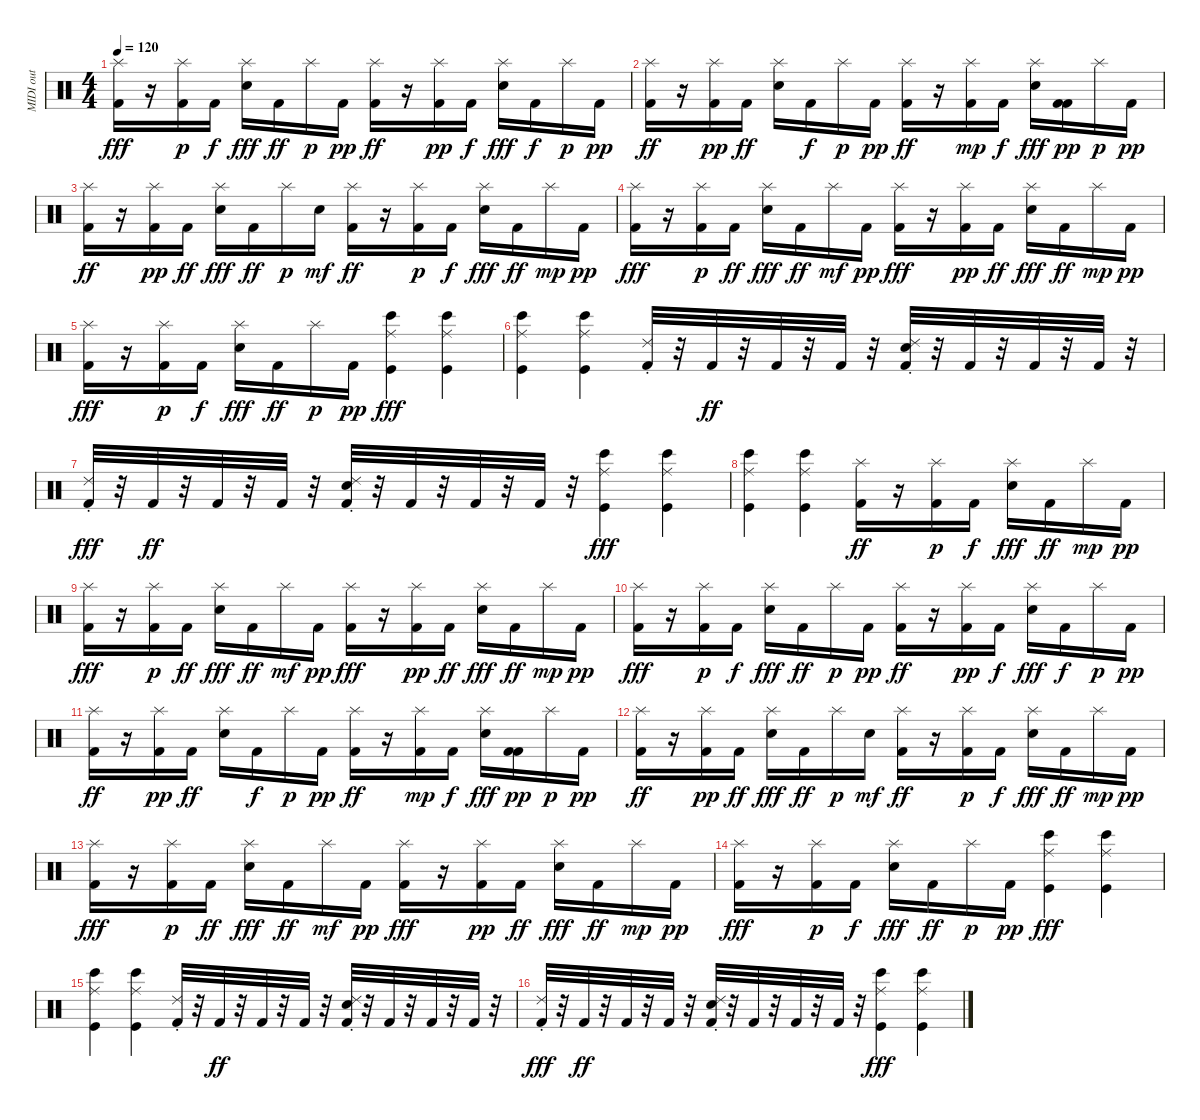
\track ("MIDI out" "MIDI out") {instrument percussion}
\staff {score}
\articulation defaults
\ts (4 4)
\tempo 120
\clef neutral
\ks c
("Kick (hit) 2" "Splash (hit)").16{dy fff} r.16 ("Splash (hit)" "Kick (hit) 2").16{dy p} "Kick (hit) 2".16{dy f} ("Splash (hit)" "Snare (hit) 2").16{dy fff} "Kick (hit) 2".16{dy ff} "Splash (hit)".16{dy p} "Kick (hit) 2".16{dy pp} ("Splash (hit)" "Kick (hit) 2").16{dy ff} r.16 ("Splash (hit)" "Kick (hit) 2").16{dy pp} "Kick (hit) 2".16{dy f} ("Splash (hit)" "Snare (hit) 2").16{dy fff} "Kick (hit) 2".16{dy f} "Splash (hit)".16{dy p} "Kick (hit) 2".16{dy pp} |
("Splash (hit)" "Kick (hit) 2").16{dy ff} r.16 ("Splash (hit)" "Kick (hit) 2").16{dy pp} "Kick (hit) 2".16{dy ff} ("Snare (hit) 2" "Splash (hit)").16 "Kick (hit) 2".16{dy f} "Splash (hit)".16{dy p} "Kick (hit) 2".16{dy pp} ("Splash (hit)" "Kick (hit) 2").16{dy ff} r.16 ("Kick (hit) 2" "Splash (hit)").16{dy mp} "Kick (hit) 2".16{dy f} ("Snare (hit) 2" "Splash (hit)").16{dy fff} ("Kick (hit) 2" "Kick (hit) 2").16{dy pp} "Splash (hit)".16{dy p} "Kick (hit) 2".16{dy pp} |
("Kick (hit) 2" "Splash (hit)").16{dy ff} r.16 ("Splash (hit)" "Kick (hit) 2").16{dy pp} "Kick (hit) 2".16{dy ff} ("Splash (hit)" "Snare (hit) 2").16{dy fff} "Kick (hit) 2".16{dy ff} "Splash (hit)".16{dy p} "Snare (hit) 2".16{dy mf} ("Splash (hit)" "Kick (hit) 2").16{dy ff} r.16 ("Kick (hit) 2" "Splash (hit)").16{dy p} "Kick (hit) 2".16{dy f} ("Splash (hit)" "Snare (hit) 2").16{dy fff} "Kick (hit) 2".16{dy ff} "Splash (hit)".16{dy mp} "Kick (hit) 2".16{dy pp} |
("Kick (hit) 2" "Splash (hit)").16{dy fff} r.16 ("Splash (hit)" "Kick (hit) 2").16{dy p} "Kick (hit) 2".16{dy ff} ("Splash (hit)" "Snare (hit) 2").16{dy fff} "Kick (hit) 2".16{dy ff} "Splash (hit)".16{dy mf} "Kick (hit) 2".16{dy pp} ("Kick (hit) 2" "Splash (hit)").16{dy fff} r.16 ("Splash (hit)" "Kick (hit) 2").16{dy pp} "Kick (hit) 2".16{dy ff} ("Snare (hit) 2" "Splash (hit)").16{dy fff} "Kick (hit) 2".16{dy ff} "Splash (hit)".16{dy mp} "Kick (hit) 2".16{dy pp} |
("Kick (hit) 2" "Splash (hit)").16{dy fff} r.16 ("Splash (hit)" "Kick (hit) 2").16{dy p} "Kick (hit) 2".16{dy f} ("Splash (hit)" "Snare (hit) 2").16{dy fff} "Kick (hit) 2".16{dy ff} "Splash (hit)".16{dy p} "Kick (hit) 2".16{dy pp} ("Ride (middle)" "Bongo High (hit)" "Kick (hit)").4{dy fff} ("Kick (hit)" "Ride (middle)" "Bongo High (hit)").4 |
("Bongo High (hit)" "Ride (middle)" "Kick (hit)").4 ("Kick (hit)" "Ride (middle)" "Bongo High (hit)").4 ("Ride (choke) 2" "Kick (hit) 2").32 r.32 "Kick (hit) 2".32{dy ff} r.32 "Kick (hit) 2".32 r.32 "Kick (hit) 2".32 r.32 ("Ride (choke) 2" "Snare (hit) 2" "Kick (hit) 2").32 r.32 "Kick (hit) 2".32 r.32 "Kick (hit) 2".32 r.32 "Kick (hit) 2".32 r.32 |
("Ride (choke) 2" "Kick (hit) 2").32{dy fff} r.32 "Kick (hit) 2".32{dy ff} r.32 "Kick (hit) 2".32 r.32 "Kick (hit) 2".32 r.32 ("Ride (choke) 2" "Snare (hit) 2" "Kick (hit) 2").32 r.32 "Kick (hit) 2".32 r.32 "Kick (hit) 2".32 r.32 "Kick (hit) 2".32 r.32 ("Ride (middle)" "Bongo High (hit)" "Kick (hit)").4{dy fff} ("Kick (hit)" "Ride (middle)" "Bongo High (hit)").4 |
("Bongo High (hit)" "Ride (middle)" "Kick (hit)").4 ("Kick (hit)" "Ride (middle)" "Bongo High (hit)").4 ("Splash (hit)" "Kick (hit) 2").16{dy ff} r.16 ("Kick (hit) 2" "Splash (hit)").16{dy p} "Kick (hit) 2".16{dy f} ("Splash (hit)" "Snare (hit) 2").16{dy fff} "Kick (hit) 2".16{dy ff} "Splash (hit)".16{dy mp} "Kick (hit) 2".16{dy pp} |
("Kick (hit) 2" "Splash (hit)").16{dy fff} r.16 ("Splash (hit)" "Kick (hit) 2").16{dy p} "Kick (hit) 2".16{dy ff} ("Splash (hit)" "Snare (hit) 2").16{dy fff} "Kick (hit) 2".16{dy ff} "Splash (hit)".16{dy mf} "Kick (hit) 2".16{dy pp} ("Kick (hit) 2" "Splash (hit)").16{dy fff} r.16 ("Splash (hit)" "Kick (hit) 2").16{dy pp} "Kick (hit) 2".16{dy ff} ("Snare (hit) 2" "Splash (hit)").16{dy fff} "Kick (hit) 2".16{dy ff} "Splash (hit)".16{dy mp} "Kick (hit) 2".16{dy pp} |
("Kick (hit) 2" "Splash (hit)").16{dy fff} r.16 ("Splash (hit)" "Kick (hit) 2").16{dy p} "Kick (hit) 2".16{dy f} ("Splash (hit)" "Snare (hit) 2").16{dy fff} "Kick (hit) 2".16{dy ff} "Splash (hit)".16{dy p} "Kick (hit) 2".16{dy pp} ("Splash (hit)" "Kick (hit) 2").16{dy ff} r.16 ("Splash (hit)" "Kick (hit) 2").16{dy pp} "Kick (hit) 2".16{dy f} ("Splash (hit)" "Snare (hit) 2").16{dy fff} "Kick (hit) 2".16{dy f} "Splash (hit)".16{dy p} "Kick (hit) 2".16{dy pp} |
("Splash (hit)" "Kick (hit) 2").16{dy ff} r.16 ("Splash (hit)" "Kick (hit) 2").16{dy pp} "Kick (hit) 2".16{dy ff} ("Snare (hit) 2" "Splash (hit)").16 "Kick (hit) 2".16{dy f} "Splash (hit)".16{dy p} "Kick (hit) 2".16{dy pp} ("Splash (hit)" "Kick (hit) 2").16{dy ff} r.16 ("Kick (hit) 2" "Splash (hit)").16{dy mp} "Kick (hit) 2".16{dy f} ("Snare (hit) 2" "Splash (hit)").16{dy fff} ("Kick (hit) 2" "Kick (hit) 2").16{dy pp} "Splash (hit)".16{dy p} "Kick (hit) 2".16{dy pp} |
("Kick (hit) 2" "Splash (hit)").16{dy ff} r.16 ("Splash (hit)" "Kick (hit) 2").16{dy pp} "Kick (hit) 2".16{dy ff} ("Splash (hit)" "Snare (hit) 2").16{dy fff} "Kick (hit) 2".16{dy ff} "Splash (hit)".16{dy p} "Snare (hit) 2".16{dy mf} ("Splash (hit)" "Kick (hit) 2").16{dy ff} r.16 ("Kick (hit) 2" "Splash (hit)").16{dy p} "Kick (hit) 2".16{dy f} ("Splash (hit)" "Snare (hit) 2").16{dy fff} "Kick (hit) 2".16{dy ff} "Splash (hit)".16{dy mp} "Kick (hit) 2".16{dy pp} |
("Kick (hit) 2" "Splash (hit)").16{dy fff} r.16 ("Splash (hit)" "Kick (hit) 2").16{dy p} "Kick (hit) 2".16{dy ff} ("Splash (hit)" "Snare (hit) 2").16{dy fff} "Kick (hit) 2".16{dy ff} "Splash (hit)".16{dy mf} "Kick (hit) 2".16{dy pp} ("Kick (hit) 2" "Splash (hit)").16{dy fff} r.16 ("Splash (hit)" "Kick (hit) 2").16{dy pp} "Kick (hit) 2".16{dy ff} ("Snare (hit) 2" "Splash (hit)").16{dy fff} "Kick (hit) 2".16{dy ff} "Splash (hit)".16{dy mp} "Kick (hit) 2".16{dy pp} |
("Kick (hit) 2" "Splash (hit)").16{dy fff} r.16 ("Splash (hit)" "Kick (hit) 2").16{dy p} "Kick (hit) 2".16{dy f} ("Splash (hit)" "Snare (hit) 2").16{dy fff} "Kick (hit) 2".16{dy ff} "Splash (hit)".16{dy p} "Kick (hit) 2".16{dy pp} ("Ride (middle)" "Bongo High (hit)" "Kick (hit)").4{dy fff} ("Kick (hit)" "Ride (middle)" "Bongo High (hit)").4 |
("Bongo High (hit)" "Ride (middle)" "Kick (hit)").4 ("Kick (hit)" "Ride (middle)" "Bongo High (hit)").4 ("Ride (choke) 2" "Kick (hit) 2").32 r.32 "Kick (hit) 2".32{dy ff} r.32 "Kick (hit) 2".32 r.32 "Kick (hit) 2".32 r.32 ("Ride (choke) 2" "Snare (hit) 2" "Kick (hit) 2").32 r.32 "Kick (hit) 2".32 r.32 "Kick (hit) 2".32 r.32 "Kick (hit) 2".32 r.32 |
("Ride (choke) 2" "Kick (hit) 2").32{dy fff} r.32 "Kick (hit) 2".32{dy ff} r.32 "Kick (hit) 2".32 r.32 "Kick (hit) 2".32 r.32 ("Ride (choke) 2" "Snare (hit) 2" "Kick (hit) 2").32 r.32 "Kick (hit) 2".32 r.32 "Kick (hit) 2".32 r.32 "Kick (hit) 2".32 r.32 ("Ride (middle)" "Bongo High (hit)" "Kick (hit)").4{dy fff} ("Kick (hit)" "Ride (middle)" "Bongo High (hit)").4
